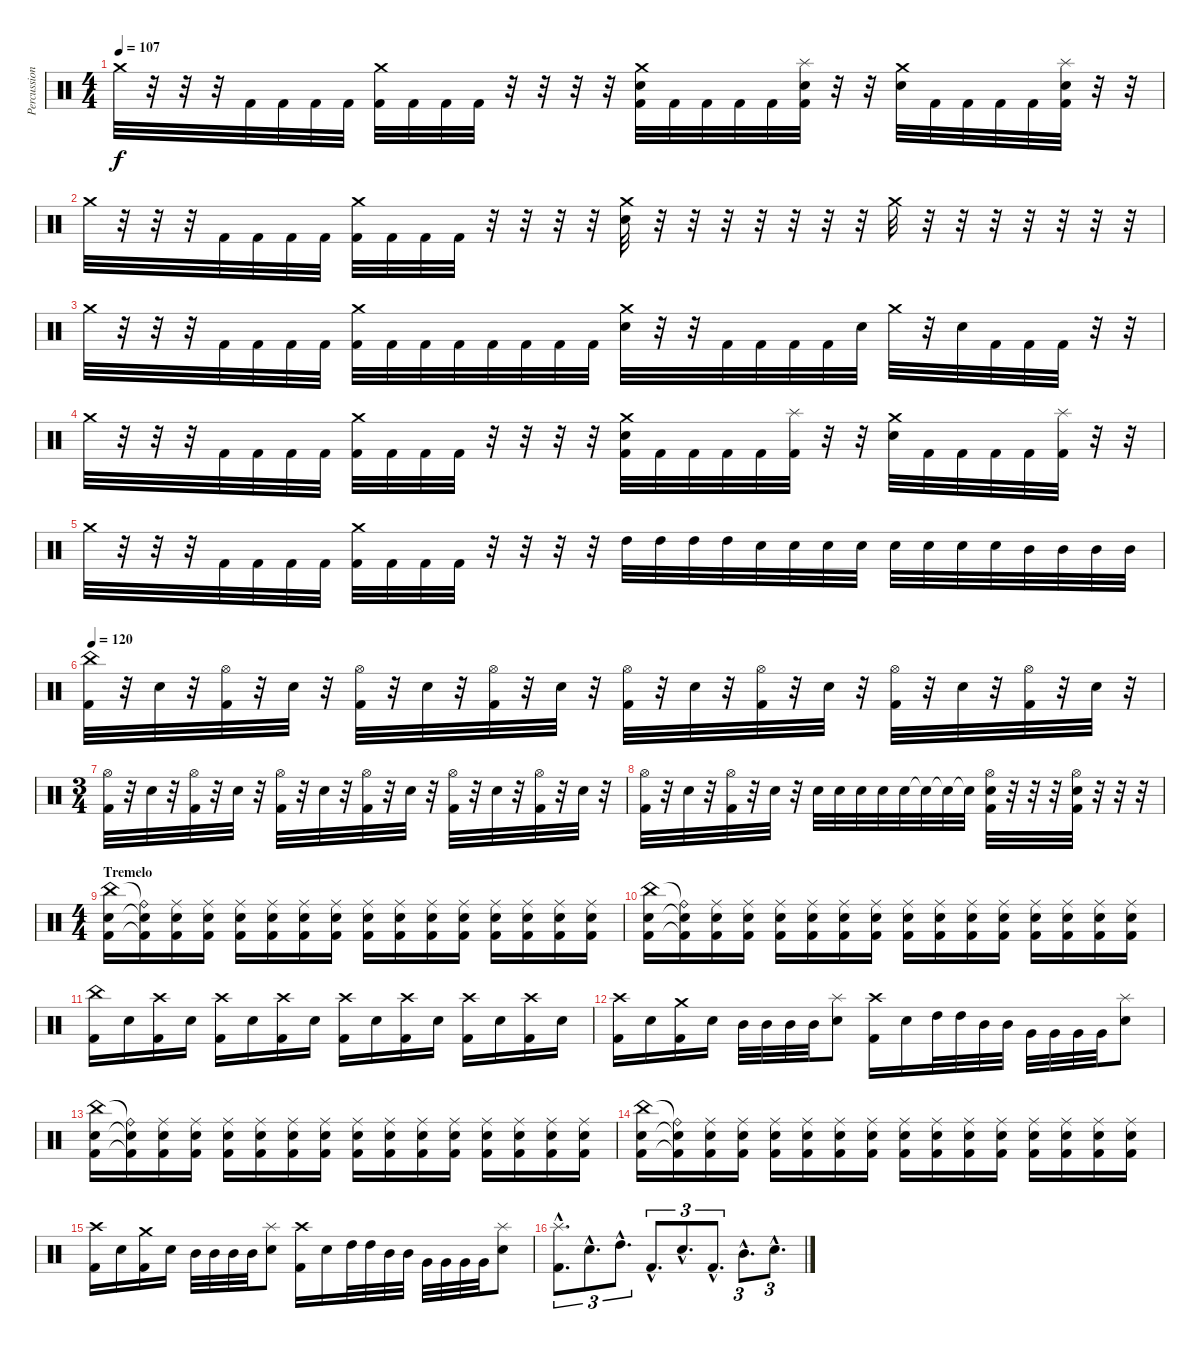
\track ("Percussion" "Percussion") {instrument percussion}
\staff {score}
\articulation defaults
\ts (4 4)
\tempo 107
\clef neutral
\ks c "Crash medium (hit)".32{dy f}
r.32 r.32 r.32 "Kick (hit) 2".32 "Kick (hit) 2".32 "Kick (hit) 2".32 "Kick (hit) 2".32 ("Kick (hit) 2" "Crash medium (hit)").32 "Kick (hit) 2".32 "Kick (hit) 2".32 "Kick (hit) 2".32 r.32 r.32 r.32 r.32 ("Kick (hit) 2" "Electric Snare (hit)" "Crash medium (hit)").32 "Kick (hit) 2".32 "Kick (hit) 2".32 "Kick (hit) 2".32 "Kick (hit) 2".32 ("Kick (hit) 2" "Electric Snare (hit)" "Splash (hit)").32 r.32 r.32 ("Electric Snare (hit)" "Crash medium (hit)").32 "Kick (hit) 2".32 "Kick (hit) 2".32 "Kick (hit) 2".32 "Kick (hit) 2".32 ("Kick (hit) 2" "Splash (hit)" "Electric Snare (hit)").32 r.32 r.32 |
"Crash medium (hit)".32 r.32 r.32 r.32 "Kick (hit) 2".32 "Kick (hit) 2".32 "Kick (hit) 2".32 "Kick (hit) 2".32 ("Kick (hit) 2" "Crash medium (hit)").32 "Kick (hit) 2".32 "Kick (hit) 2".32 "Kick (hit) 2".32 r.32 r.32 r.32 r.32 ("Electric Snare (hit)" "Crash medium (hit)").32 r.32 r.32 r.32 r.32 r.32 r.32 r.32 "Crash medium (hit)".32 r.32 r.32 r.32 r.32 r.32 r.32 r.32 |
"Crash medium (hit)".32 r.32 r.32 r.32 "Kick (hit) 2".32 "Kick (hit) 2".32 "Kick (hit) 2".32 "Kick (hit) 2".32 ("Kick (hit) 2" "Crash medium (hit)").32 "Kick (hit) 2".32 "Kick (hit) 2".32 "Kick (hit) 2".32 "Kick (hit) 2".32 "Kick (hit) 2".32 "Kick (hit) 2".32 "Kick (hit) 2".32 ("Electric Snare (hit)" "Crash medium (hit)").32 r.32 r.32 "Kick (hit) 2".32 "Kick (hit) 2".32 "Kick (hit) 2".32 "Kick (hit) 2".32 "Electric Snare (hit)".32 "Crash medium (hit)".32 r.32 "Electric Snare (hit)".32 "Kick (hit) 2".32 "Kick (hit) 2".32 "Kick (hit) 2".32 r.32 r.32 |
"Crash medium (hit)".32 r.32 r.32 r.32 "Kick (hit) 2".32 "Kick (hit) 2".32 "Kick (hit) 2".32 "Kick (hit) 2".32 ("Kick (hit) 2" "Crash medium (hit)").32 "Kick (hit) 2".32 "Kick (hit) 2".32 "Kick (hit) 2".32 r.32 r.32 r.32 r.32 ("Kick (hit) 2" "Electric Snare (hit)" "Crash medium (hit)").32 "Kick (hit) 2".32 "Kick (hit) 2".32 "Kick (hit) 2".32 "Kick (hit) 2".32 ("Kick (hit) 2" "Splash (hit)").32 r.32 r.32 ("Electric Snare (hit)" "Crash medium (hit)").32 "Kick (hit) 2".32 "Kick (hit) 2".32 "Kick (hit) 2".32 "Kick (hit) 2".32 ("Kick (hit) 2" "Splash (hit)").32 r.32 r.32 |
"Crash medium (hit)".32 r.32 r.32 r.32 "Kick (hit) 2".32 "Kick (hit) 2".32 "Kick (hit) 2".32 "Kick (hit) 2".32 ("Kick (hit) 2" "Crash medium (hit)").32 "Kick (hit) 2".32 "Kick (hit) 2".32 "Kick (hit) 2".32 r.32 r.32 r.32 r.32 "High Tom (hit)".32 "High Tom (hit)".32 "High Tom (hit)".32 "High Tom (hit)".32 "Electric Snare (hit)".32 "Electric Snare (hit)".32 "Electric Snare (hit)".32 "Electric Snare (hit)".32 "Electric Snare (hit)".32 "Electric Snare (hit)".32 "Electric Snare (hit)".32 "Electric Snare (hit)".32 "Mid Tom (hit)".32 "Mid Tom (hit)".32 "Mid Tom (hit)".32 "Mid Tom (hit)".32 |
\tempo 120
("China (hit)" "Kick (hit) 2").32 r.32 "Electric Snare (hit)".32 r.32 ("Hi-Hat (open)" "Kick (hit) 2").32 r.32 "Electric Snare (hit)".32 r.32 ("Hi-Hat (open)" "Kick (hit) 2").32 r.32 "Electric Snare (hit)".32 r.32 ("Hi-Hat (open)" "Kick (hit) 2").32 r.32 "Electric Snare (hit)".32 r.32 ("Hi-Hat (open)" "Kick (hit) 2").32 r.32 "Electric Snare (hit)".32 r.32 ("Hi-Hat (open)" "Kick (hit) 2").32 r.32 "Electric Snare (hit)".32 r.32 ("Hi-Hat (open)" "Kick (hit) 2").32 r.32 "Electric Snare (hit)".32 r.32 ("Hi-Hat (open)" "Kick (hit) 2").32 r.32 "Electric Snare (hit)".32 r.32 |
\ts (3 4)
("Kick (hit) 2" "Hi-Hat (open)").32 r.32 "Electric Snare (hit)".32 r.32 ("Kick (hit) 2" "Hi-Hat (open)").32 r.32 "Electric Snare (hit)".32 r.32 ("Kick (hit) 2" "Hi-Hat (open)").32 r.32 "Electric Snare (hit)".32 r.32 ("Kick (hit) 2" "Hi-Hat (open)").32 r.32 "Electric Snare (hit)".32 r.32 ("Kick (hit) 2" "Hi-Hat (open)").32 r.32 "Electric Snare (hit)".32 r.32 ("Kick (hit) 2" "Hi-Hat (open)").32 r.32 "Electric Snare (hit)".32 r.32 |
("Kick (hit) 2" "Hi-Hat (open)").32 r.32 "Electric Snare (hit)".32 r.32 ("Kick (hit) 2" "Hi-Hat (open)").32 r.32 "Electric Snare (hit)".32 r.32 "Electric Snare (hit)".32 "Electric Snare (hit)".32 "Electric Snare (hit)".32 "Electric Snare (hit)".32 "Electric Snare (hit)".32 "Snare (hit)"{t}.32 "Snare (hit)"{t}.32 "Snare (hit)"{t}.32 ("Kick (hit) 2" "Hi-Hat (open)" "Electric Snare (hit)").32 r.32 r.32 r.32 ("Kick (hit) 2" "Electric Snare (hit)" "Hi-Hat (open)").32 r.32 r.32 r.32 |
\ts (4 4)
\section ("" "Tremelo")
("China (hit)" "Electric Snare (hit)" "Kick (hit) 2").16 ("Ride (bell)"{t} "Electric Snare (hit)"{t} "Kick (hit) 2"{t}).16 ("Ride (middle)" "Electric Snare (hit)" "Kick (hit) 2").16 ("Ride (middle)" "Electric Snare (hit)" "Kick (hit) 2").16 ("Ride (middle)" "Electric Snare (hit)" "Kick (hit) 2").16 ("Ride (middle)" "Electric Snare (hit)" "Kick (hit) 2").16 ("Ride (middle)" "Electric Snare (hit)" "Kick (hit) 2").16 ("Ride (middle)" "Electric Snare (hit)" "Kick (hit) 2").16 ("Ride (middle)" "Electric Snare (hit)" "Kick (hit) 2").16 ("Ride (middle)" "Electric Snare (hit)" "Kick (hit) 2").16 ("Ride (middle)" "Electric Snare (hit)" "Kick (hit) 2").16 ("Ride (middle)" "Electric Snare (hit)" "Kick (hit) 2").16 ("Ride (middle)" "Electric Snare (hit)" "Kick (hit) 2").16 ("Ride (middle)" "Electric Snare (hit)" "Kick (hit) 2").16 ("Ride (middle)" "Electric Snare (hit)" "Kick (hit) 2").16 ("Ride (middle)" "Electric Snare (hit)" "Kick (hit) 2").16 |
("China (hit)" "Electric Snare (hit)" "Kick (hit) 2").16 ("Ride (bell)"{t} "Electric Snare (hit)"{t} "Kick (hit) 2"{t}).16 ("Ride (middle)" "Electric Snare (hit)" "Kick (hit) 2").16 ("Ride (middle)" "Electric Snare (hit)" "Kick (hit) 2").16 ("Ride (middle)" "Electric Snare (hit)" "Kick (hit) 2").16 ("Ride (middle)" "Electric Snare (hit)" "Kick (hit) 2").16 ("Ride (middle)" "Electric Snare (hit)" "Kick (hit) 2").16 ("Ride (middle)" "Electric Snare (hit)" "Kick (hit) 2").16 ("Ride (middle)" "Electric Snare (hit)" "Kick (hit) 2").16 ("Ride (middle)" "Electric Snare (hit)" "Kick (hit) 2").16 ("Ride (middle)" "Electric Snare (hit)" "Kick (hit) 2").16 ("Ride (middle)" "Electric Snare (hit)" "Kick (hit) 2").16 ("Ride (middle)" "Electric Snare (hit)" "Kick (hit) 2").16 ("Ride (middle)" "Electric Snare (hit)" "Kick (hit) 2").16 ("Ride (middle)" "Electric Snare (hit)" "Kick (hit) 2").16 ("Ride (middle)" "Electric Snare (hit)" "Kick (hit) 2").16 |
("China (hit)" "Kick (hit) 2").16 "Electric Snare (hit)".16 ("Crash high (hit)" "Kick (hit) 2").16 "Electric Snare (hit)".16 ("Crash high (hit)" "Kick (hit) 2").16 "Electric Snare (hit)".16 ("Crash high (hit)" "Kick (hit) 2").16 "Electric Snare (hit)".16 ("Crash high (hit)" "Kick (hit) 2").16 "Electric Snare (hit)".16 ("Crash high (hit)" "Kick (hit) 2").16 "Electric Snare (hit)".16 ("Crash high (hit)" "Kick (hit) 2").16 "Electric Snare (hit)".16 ("Crash high (hit)" "Kick (hit) 2").16 "Electric Snare (hit)".16 |
("Crash high (hit)" "Kick (hit) 2").16 "Electric Snare (hit)".16 ("Crash medium (hit)" "Kick (hit) 2").16 "Electric Snare (hit)".16 "Mid Tom (hit)".32 "Mid Tom (hit)".32 "Mid Tom (hit)".32 "Mid Tom (hit)".32 ("Electric Snare (hit)" "Splash (hit)").8 ("Crash high (hit)" "Kick (hit) 2").16 "Electric Snare (hit)".16 "High Tom (hit)".32 "High Tom (hit)".32 "Mid Tom (hit)".32 "Mid Tom (hit)".32 "Very Low Tom (hit)".32 "Very Low Tom (hit)".32 "Very Low Tom (hit)".32 "Very Low Tom (hit)".32 ("Splash (hit)" "Electric Snare (hit)").8 |
("China (hit)" "Electric Snare (hit)" "Kick (hit) 2").16 ("Ride (bell)"{t} "Electric Snare (hit)"{t} "Kick (hit) 2"{t}).16 ("Ride (middle)" "Electric Snare (hit)" "Kick (hit) 2").16 ("Ride (middle)" "Electric Snare (hit)" "Kick (hit) 2").16 ("Ride (middle)" "Electric Snare (hit)" "Kick (hit) 2").16 ("Ride (middle)" "Electric Snare (hit)" "Kick (hit) 2").16 ("Ride (middle)" "Electric Snare (hit)" "Kick (hit) 2").16 ("Ride (middle)" "Electric Snare (hit)" "Kick (hit) 2").16 ("Ride (middle)" "Electric Snare (hit)" "Kick (hit) 2").16 ("Ride (middle)" "Electric Snare (hit)" "Kick (hit) 2").16 ("Ride (middle)" "Electric Snare (hit)" "Kick (hit) 2").16 ("Ride (middle)" "Electric Snare (hit)" "Kick (hit) 2").16 ("Ride (middle)" "Electric Snare (hit)" "Kick (hit) 2").16 ("Ride (middle)" "Electric Snare (hit)" "Kick (hit) 2").16 ("Ride (middle)" "Electric Snare (hit)" "Kick (hit) 2").16 ("Ride (middle)" "Electric Snare (hit)" "Kick (hit) 2").16 |
("China (hit)" "Electric Snare (hit)" "Kick (hit) 2").16 ("Ride (bell)"{t} "Electric Snare (hit)"{t} "Kick (hit) 2"{t}).16 ("Ride (middle)" "Electric Snare (hit)" "Kick (hit) 2").16 ("Ride (middle)" "Electric Snare (hit)" "Kick (hit) 2").16 ("Ride (middle)" "Electric Snare (hit)" "Kick (hit) 2").16 ("Ride (middle)" "Electric Snare (hit)" "Kick (hit) 2").16 ("Ride (middle)" "Electric Snare (hit)" "Kick (hit) 2").16 ("Ride (middle)" "Electric Snare (hit)" "Kick (hit) 2").16 ("Ride (middle)" "Electric Snare (hit)" "Kick (hit) 2").16 ("Ride (middle)" "Electric Snare (hit)" "Kick (hit) 2").16 ("Ride (middle)" "Electric Snare (hit)" "Kick (hit) 2").16 ("Ride (middle)" "Electric Snare (hit)" "Kick (hit) 2").16 ("Ride (middle)" "Electric Snare (hit)" "Kick (hit) 2").16 ("Ride (middle)" "Electric Snare (hit)" "Kick (hit) 2").16 ("Ride (middle)" "Electric Snare (hit)" "Kick (hit) 2").16 ("Ride (middle)" "Electric Snare (hit)" "Kick (hit) 2").16 |
("Crash high (hit)" "Kick (hit) 2").16 "Electric Snare (hit)".16 ("Crash medium (hit)" "Kick (hit) 2").16 "Electric Snare (hit)".16 "Mid Tom (hit)".32 "Mid Tom (hit)".32 "Mid Tom (hit)".32 "Mid Tom (hit)".32 ("Electric Snare (hit)" "Splash (hit)").8 ("Crash high (hit)" "Kick (hit) 2").16 "Electric Snare (hit)".16 "High Tom (hit)".32 "High Tom (hit)".32 "Mid Tom (hit)".32 "Mid Tom (hit)".32 "Very Low Tom (hit)".32 "Very Low Tom (hit)".32 "Very Low Tom (hit)".32 "Very Low Tom (hit)".32 ("Splash (hit)" "Electric Snare (hit)").8 |
("Splash (hit)"{hac} "Kick (hit) 2"{hac}).8{d tu (3 2)} "Electric Snare (hit)"{hac}.8{d tu (3 2)} "High Tom (hit)"{hac}.8{d tu (3 2)} "Kick (hit) 2"{hac}.8{d tu (3 2)} "Electric Snare (hit)"{hac}.8{d tu (3 2)} "Kick (hit) 2"{hac}.8{d tu (3 2)} "Mid Tom (hit)"{hac}.8{d tu (3 2)} "Electric Snare (hit)"{hac}.8{d tu (3 2)}
